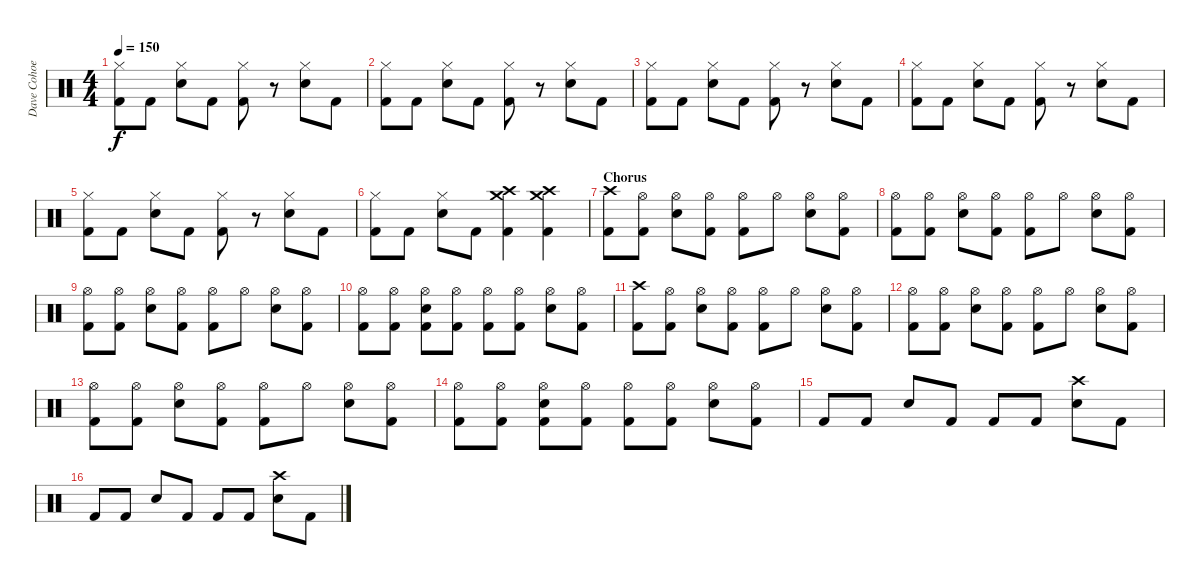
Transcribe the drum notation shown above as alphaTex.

\track ("Dave Cohoe" "Dave Cohoe") {instrument percussion}
\staff {score}
\articulation defaults
\ts (4 4)
\tempo 150
\clef neutral
\ks c
("Hi-Hat (closed)" "Kick (hit) 2").8{dy f} "Kick (hit) 2".8 ("Hi-Hat (closed)" "Snare (hit) 2").8 "Kick (hit) 2".8 ("Hi-Hat (closed)" "Kick (hit) 2").8 r.8 ("Hi-Hat (closed)" "Snare (hit) 2").8 "Kick (hit) 2".8 |
("Hi-Hat (closed)" "Kick (hit) 2").8 "Kick (hit) 2".8 ("Hi-Hat (closed)" "Snare (hit) 2").8 "Kick (hit) 2".8 ("Hi-Hat (closed)" "Kick (hit) 2").8 r.8 ("Hi-Hat (closed)" "Snare (hit) 2").8 "Kick (hit) 2".8 |
("Hi-Hat (closed)" "Kick (hit) 2").8 "Kick (hit) 2".8 ("Hi-Hat (closed)" "Snare (hit) 2").8 "Kick (hit) 2".8 ("Hi-Hat (closed)" "Kick (hit) 2").8 r.8 ("Hi-Hat (closed)" "Snare (hit) 2").8 "Kick (hit) 2".8 |
("Hi-Hat (closed)" "Kick (hit) 2").8 "Kick (hit) 2".8 ("Hi-Hat (closed)" "Snare (hit) 2").8 "Kick (hit) 2".8 ("Hi-Hat (closed)" "Kick (hit) 2").8 r.8 ("Hi-Hat (closed)" "Snare (hit) 2").8 "Kick (hit) 2".8 |
("Hi-Hat (closed)" "Kick (hit) 2").8 "Kick (hit) 2".8 ("Hi-Hat (closed)" "Snare (hit) 2").8 "Kick (hit) 2".8 ("Hi-Hat (closed)" "Kick (hit) 2").8 r.8 ("Hi-Hat (closed)" "Snare (hit) 2").8 "Kick (hit) 2".8 |
("Hi-Hat (closed)" "Kick (hit) 2").8 "Kick (hit) 2".8 ("Hi-Hat (closed)" "Snare (hit) 2").8 "Kick (hit) 2".8 ("Crash high (hit)" "Crash medium (hit)" "Kick (hit) 2").4 ("Crash high (hit)" "Crash medium (hit)" "Kick (hit) 2").4 |
\section ("" "Chorus")
("Crash high (hit)" "Kick (hit) 2").8 ("Hi-Hat (open)" "Kick (hit) 2").8 ("Hi-Hat (open)" "Snare (hit) 2").8 ("Hi-Hat (open)" "Kick (hit) 2").8 ("Hi-Hat (open)" "Kick (hit) 2").8 "Hi-Hat (open)".8 ("Hi-Hat (open)" "Snare (hit) 2").8 ("Hi-Hat (open)" "Kick (hit) 2").8 |
("Hi-Hat (open)" "Kick (hit) 2").8 ("Hi-Hat (open)" "Kick (hit) 2").8 ("Hi-Hat (open)" "Snare (hit) 2").8 ("Hi-Hat (open)" "Kick (hit) 2").8 ("Hi-Hat (open)" "Kick (hit) 2").8 "Hi-Hat (open)".8 ("Hi-Hat (open)" "Snare (hit) 2").8 ("Hi-Hat (open)" "Kick (hit) 2").8 |
("Hi-Hat (open)" "Kick (hit) 2").8 ("Hi-Hat (open)" "Kick (hit) 2").8 ("Hi-Hat (open)" "Snare (hit) 2").8 ("Hi-Hat (open)" "Kick (hit) 2").8 ("Hi-Hat (open)" "Kick (hit) 2").8 "Hi-Hat (open)".8 ("Hi-Hat (open)" "Snare (hit) 2").8 ("Hi-Hat (open)" "Kick (hit) 2").8 |
("Hi-Hat (open)" "Kick (hit) 2").8 ("Hi-Hat (open)" "Kick (hit) 2").8 ("Hi-Hat (open)" "Snare (hit) 2" "Kick (hit) 2").8 ("Hi-Hat (open)" "Kick (hit) 2").8 ("Hi-Hat (open)" "Kick (hit) 2").8 ("Hi-Hat (open)" "Kick (hit) 2").8 ("Hi-Hat (open)" "Snare (hit) 2").8 ("Hi-Hat (open)" "Kick (hit) 2").8 |
("Crash high (hit)" "Kick (hit) 2").8 ("Hi-Hat (open)" "Kick (hit) 2").8 ("Hi-Hat (open)" "Snare (hit) 2").8 ("Hi-Hat (open)" "Kick (hit) 2").8 ("Hi-Hat (open)" "Kick (hit) 2").8 "Hi-Hat (open)".8 ("Hi-Hat (open)" "Snare (hit) 2").8 ("Hi-Hat (open)" "Kick (hit) 2").8 |
("Hi-Hat (open)" "Kick (hit) 2").8 ("Hi-Hat (open)" "Kick (hit) 2").8 ("Hi-Hat (open)" "Snare (hit) 2").8 ("Hi-Hat (open)" "Kick (hit) 2").8 ("Hi-Hat (open)" "Kick (hit) 2").8 "Hi-Hat (open)".8 ("Hi-Hat (open)" "Snare (hit) 2").8 ("Hi-Hat (open)" "Kick (hit) 2").8 |
("Hi-Hat (open)" "Kick (hit) 2").8 ("Hi-Hat (open)" "Kick (hit) 2").8 ("Hi-Hat (open)" "Snare (hit) 2").8 ("Hi-Hat (open)" "Kick (hit) 2").8 ("Hi-Hat (open)" "Kick (hit) 2").8 "Hi-Hat (open)".8 ("Hi-Hat (open)" "Snare (hit) 2").8 ("Hi-Hat (open)" "Kick (hit) 2").8 |
("Hi-Hat (open)" "Kick (hit) 2").8 ("Hi-Hat (open)" "Kick (hit) 2").8 ("Hi-Hat (open)" "Snare (hit) 2" "Kick (hit) 2").8 ("Hi-Hat (open)" "Kick (hit) 2").8 ("Hi-Hat (open)" "Kick (hit) 2").8 ("Hi-Hat (open)" "Kick (hit) 2").8 ("Hi-Hat (open)" "Snare (hit) 2").8 ("Hi-Hat (open)" "Kick (hit) 2").8 |
"Kick (hit) 2".8 "Kick (hit) 2".8 "Snare (hit) 2".8 "Kick (hit) 2".8 "Kick (hit) 2".8 "Kick (hit) 2".8 ("Crash high (hit)" "Snare (hit) 2").8 "Kick (hit) 2".8 |
"Kick (hit) 2".8 "Kick (hit) 2".8 "Snare (hit) 2".8 "Kick (hit) 2".8 "Kick (hit) 2".8 "Kick (hit) 2".8 ("Crash high (hit)" "Snare (hit) 2").8 "Kick (hit) 2".8
